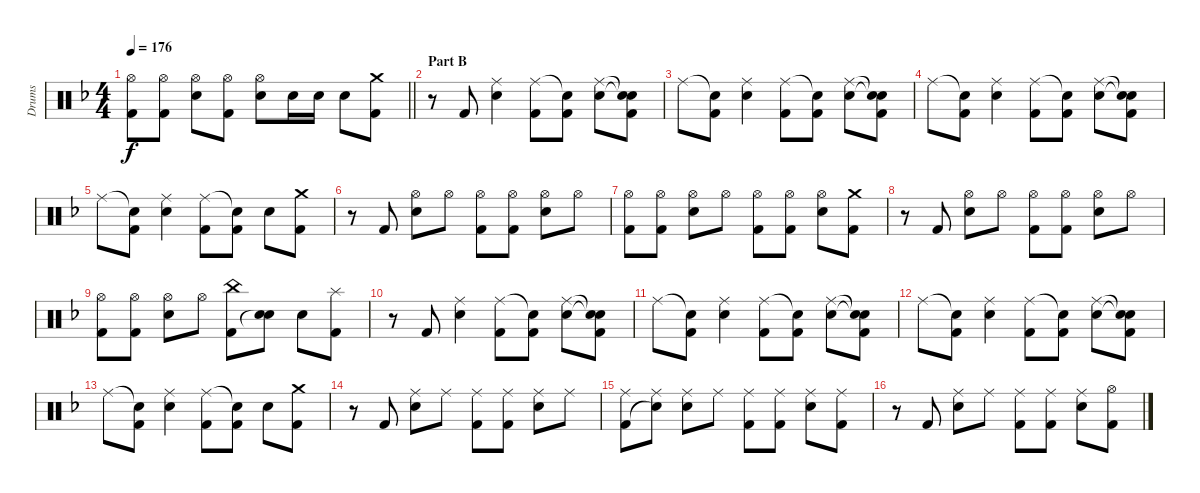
\track ("Drums" "Drums") {instrument percussion}
\staff {score}
\articulation defaults
\ts (4 4)
\tempo 176
\clef neutral
\barLineRight lightlight
\ks f
("Hi-Hat (open)" "Kick (hit) 2").8{dy f} ("Hi-Hat (open)" "Kick (hit) 2").8 ("Hi-Hat (open)" "Electric Snare (hit)").8 ("Hi-Hat (open)" "Kick (hit) 2").8 ("Hi-Hat (open)" "Electric Snare (hit)").8 "Electric Snare (hit)".16 "Electric Snare (hit)".16 "Electric Snare (hit)".8 ("Crash medium (hit)" "Kick (hit) 2").8 |
\section ("" "Part B")
r.8 "Kick (hit) 2".8 ("Ride (middle)" "Electric Snare (hit)").4 ("Ride (middle)" "Kick (hit) 2").8 ("Snare (hit)"{t} "Kick (hit) 2").8 ("Ride (middle)" "Electric Snare (hit)").8 ("Snare (hit)"{t} "Snare (hit)"{t} "Kick (hit) 2").8 |
"Ride (middle)".8 ("Snare (hit)"{t} "Kick (hit) 2").8 ("Ride (middle)" "Electric Snare (hit)").4 ("Ride (middle)" "Kick (hit) 2").8 ("Snare (hit)"{t} "Kick (hit) 2").8 ("Ride (middle)" "Electric Snare (hit)").8 ("Snare (hit)"{t} "Snare (hit)"{t} "Kick (hit) 2").8 |
"Ride (middle)".8 ("Snare (hit)"{t} "Kick (hit) 2").8 ("Ride (middle)" "Electric Snare (hit)").4 ("Ride (middle)" "Kick (hit) 2").8 ("Snare (hit)"{t} "Kick (hit) 2").8 ("Ride (middle)" "Electric Snare (hit)").8 ("Snare (hit)"{t} "Snare (hit)"{t} "Kick (hit) 2").8 |
"Ride (middle)".8 ("Snare (hit)"{t} "Kick (hit) 2").8 ("Ride (middle)" "Electric Snare (hit)").4 ("Ride (middle)" "Kick (hit) 2").8 ("Snare (hit)"{t} "Kick (hit) 2").8 "Electric Snare (hit)".8 ("Crash medium (hit)" "Kick (hit) 2").8 |
r.8 "Kick (hit) 2".8 ("Hi-Hat (open)" "Electric Snare (hit)").8 "Hi-Hat (open)".8 ("Hi-Hat (open)" "Kick (hit) 2").8 ("Hi-Hat (open)" "Kick (hit) 2").8 ("Hi-Hat (open)" "Electric Snare (hit)").8 "Hi-Hat (open)".8 |
("Hi-Hat (open)" "Kick (hit) 2").8 ("Hi-Hat (open)" "Kick (hit) 2").8 ("Hi-Hat (open)" "Electric Snare (hit)").8 "Hi-Hat (open)".8 ("Hi-Hat (open)" "Kick (hit) 2").8 ("Hi-Hat (open)" "Kick (hit) 2").8 ("Hi-Hat (open)" "Electric Snare (hit)").8 ("Crash medium (hit)" "Kick (hit) 2").8 |
r.8 "Kick (hit) 2".8 ("Hi-Hat (open)" "Electric Snare (hit)").8 "Hi-Hat (open)".8 ("Hi-Hat (open)" "Kick (hit) 2").8 ("Hi-Hat (open)" "Kick (hit) 2").8 ("Hi-Hat (open)" "Electric Snare (hit)").8 "Hi-Hat (open)".8 |
("Hi-Hat (open)" "Kick (hit) 2").8 ("Hi-Hat (open)" "Kick (hit) 2").8 ("Hi-Hat (open)" "Electric Snare (hit)").8 "Hi-Hat (open)".8 ("China (hit)" "Kick (hit) 2").8 ("Electric Snare (hit)" "Snare (hit)"{t}).8 "Electric Snare (hit)".8 ("Splash (hit)" "Kick (hit) 2").8 |
r.8 "Kick (hit) 2".8 ("Ride (middle)" "Electric Snare (hit)").4 ("Ride (middle)" "Kick (hit) 2").8 ("Snare (hit)"{t} "Kick (hit) 2").8 ("Ride (middle)" "Electric Snare (hit)").8 ("Snare (hit)"{t} "Snare (hit)"{t} "Kick (hit) 2").8 |
"Ride (middle)".8 ("Snare (hit)"{t} "Kick (hit) 2").8 ("Ride (middle)" "Electric Snare (hit)").4 ("Ride (middle)" "Kick (hit) 2").8 ("Snare (hit)"{t} "Kick (hit) 2").8 ("Ride (middle)" "Electric Snare (hit)").8 ("Snare (hit)"{t} "Snare (hit)"{t} "Kick (hit) 2").8 |
"Ride (middle)".8 ("Snare (hit)"{t} "Kick (hit) 2").8 ("Ride (middle)" "Electric Snare (hit)").4 ("Ride (middle)" "Kick (hit) 2").8 ("Snare (hit)"{t} "Kick (hit) 2").8 ("Ride (middle)" "Electric Snare (hit)").8 ("Snare (hit)"{t} "Snare (hit)"{t} "Kick (hit) 2").8 |
"Ride (middle)".8 ("Snare (hit)"{t} "Kick (hit) 2").8 ("Ride (middle)" "Electric Snare (hit)").4 ("Ride (middle)" "Kick (hit) 2").8 ("Snare (hit)"{t} "Kick (hit) 2").8 "Electric Snare (hit)".8 ("Crash medium (hit)" "Kick (hit) 2").8 |
r.8 "Kick (hit) 2".8 ("Ride (middle)" "Electric Snare (hit)").8 "Ride (middle)".8 ("Ride (middle)" "Kick (hit) 2").8 ("Ride (middle)" "Kick (hit) 2").8 ("Ride (middle)" "Electric Snare (hit)").8 "Ride (middle)".8 |
("Ride (middle)" "Kick (hit) 2").8 ("Ride (middle)" "Snare (hit)"{t}).8 ("Ride (middle)" "Electric Snare (hit)").8 "Ride (middle)".8 ("Ride (middle)" "Kick (hit) 2").8 ("Ride (middle)" "Kick (hit) 2").8 ("Ride (middle)" "Electric Snare (hit)").8 ("Ride (middle)" "Kick (hit) 2").8 |
r.8 "Kick (hit) 2".8 ("Ride (middle)" "Electric Snare (hit)").8 "Ride (middle)".8 ("Ride (middle)" "Kick (hit) 2").8 ("Ride (middle)" "Kick (hit) 2").8 ("Ride (middle)" "Electric Snare (hit)").8 ("Hi-Hat (open)" "Kick (hit) 2").8
